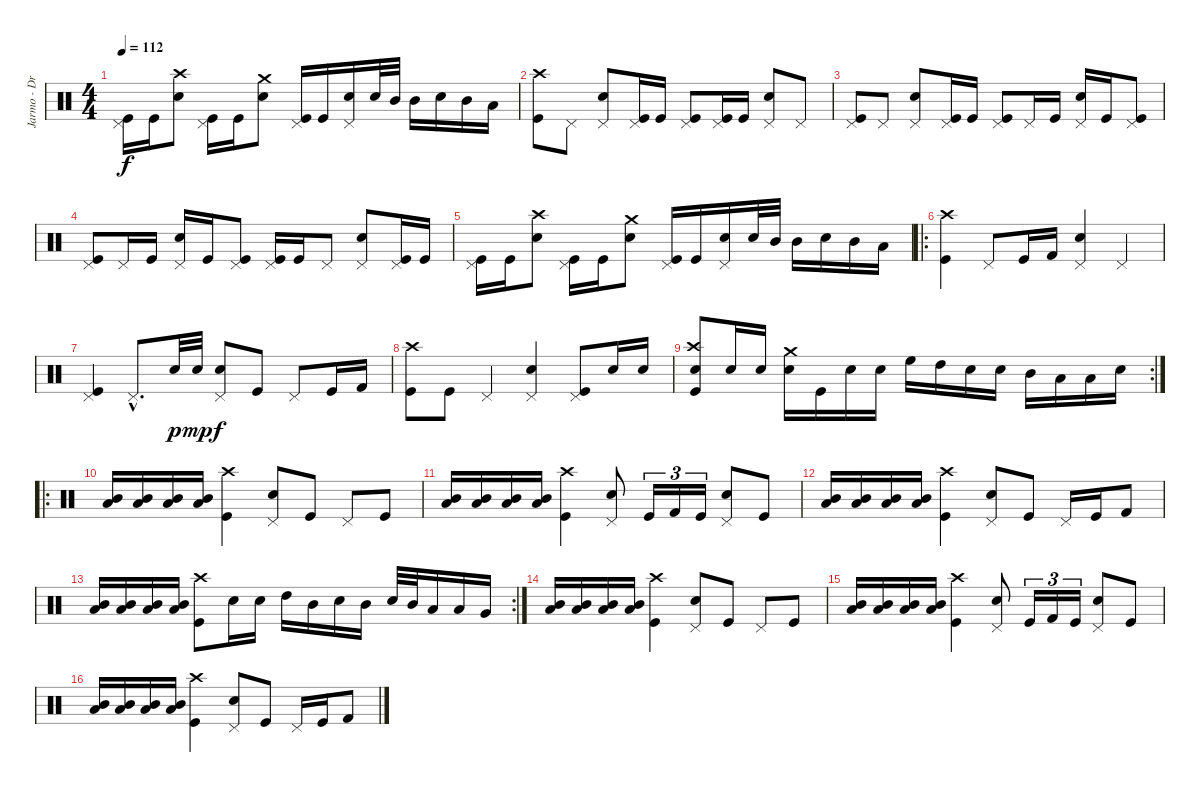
\track ("Jarmo - Drummies" "Jarmo - Dr") {instrument percussion}
\staff {score}
\articulation defaults
\ts (4 4)
\tempo 112
\clef neutral
\ks c
("Pedal Hi-Hat (hit)" "Kick (hit)").16{dy f} "Kick (hit)".16 ("Crash high (hit)" "Electric Snare (hit)").8 ("Pedal Hi-Hat (hit)" "Kick (hit)").16 "Kick (hit)".16 ("Crash medium (hit)" "Electric Snare (hit)").8 ("Pedal Hi-Hat (hit)" "Kick (hit)").16 "Kick (hit)".16 ("Pedal Hi-Hat (hit)" "Electric Snare (hit)").16 "Electric Snare (hit)".32 "Mid Tom (hit)".32 "Mid Tom (hit)".16 "Electric Snare (hit)".16 "Mid Tom (hit)".16 "Low Tom (hit)".16 |
("Crash high (hit)" "Kick (hit)").8 "Pedal Hi-Hat (hit)".8 ("Pedal Hi-Hat (hit)" "Electric Snare (hit)").8 ("Pedal Hi-Hat (hit)" "Kick (hit)").16 "Kick (hit)".16 ("Pedal Hi-Hat (hit)" "Kick (hit)").8 ("Pedal Hi-Hat (hit)" "Kick (hit)").16 "Kick (hit)".16 ("Pedal Hi-Hat (hit)" "Electric Snare (hit)").8 "Pedal Hi-Hat (hit)".8 |
("Pedal Hi-Hat (hit)" "Kick (hit)").8 "Pedal Hi-Hat (hit)".8 ("Pedal Hi-Hat (hit)" "Electric Snare (hit)").8 ("Pedal Hi-Hat (hit)" "Kick (hit)").16 "Kick (hit)".16 ("Pedal Hi-Hat (hit)" "Kick (hit)").8 "Pedal Hi-Hat (hit)".16 "Kick (hit)".16 ("Pedal Hi-Hat (hit)" "Electric Snare (hit)").16 "Kick (hit)".16 ("Pedal Hi-Hat (hit)" "Kick (hit)").8 |
("Pedal Hi-Hat (hit)" "Kick (hit)").8 "Pedal Hi-Hat (hit)".16 "Kick (hit)".16 ("Pedal Hi-Hat (hit)" "Electric Snare (hit)").16 "Kick (hit)".16 ("Pedal Hi-Hat (hit)" "Kick (hit)").8 ("Pedal Hi-Hat (hit)" "Kick (hit)").16 "Kick (hit)".16 "Pedal Hi-Hat (hit)".8 ("Pedal Hi-Hat (hit)" "Electric Snare (hit)").8 ("Pedal Hi-Hat (hit)" "Kick (hit)").16 "Kick (hit)".16 |
("Pedal Hi-Hat (hit)" "Kick (hit)").16 "Kick (hit)".16 ("Crash high (hit)" "Electric Snare (hit)").8 ("Pedal Hi-Hat (hit)" "Kick (hit)").16 "Kick (hit)".16 ("Crash medium (hit)" "Electric Snare (hit)").8 ("Pedal Hi-Hat (hit)" "Kick (hit)").16 "Kick (hit)".16 ("Pedal Hi-Hat (hit)" "Electric Snare (hit)").16 "Electric Snare (hit)".32 "Mid Tom (hit)".32 "Mid Tom (hit)".16 "Electric Snare (hit)".16 "Mid Tom (hit)".16 "Low Tom (hit)".16 |
\ro
("Kick (hit)" "Crash high (hit)").4 "Pedal Hi-Hat (hit)".8 "Kick (hit)".16 "Kick (hit) 2".16 ("Electric Snare (hit)" "Pedal Hi-Hat (hit)").4 "Pedal Hi-Hat (hit)".4 |
("Kick (hit)" "Pedal Hi-Hat (hit)").4 "Pedal Hi-Hat (hit)"{hac}.8{d} "Electric Snare (hit)".32{dy p} "Electric Snare (hit)".32{dy mp} ("Electric Snare (hit)" "Pedal Hi-Hat (hit)").8{dy f} "Kick (hit)".8 "Pedal Hi-Hat (hit)".8 "Kick (hit)".16 "Kick (hit) 2".16 |
("Kick (hit)" "Crash high (hit)").8 "Kick (hit)".8 "Pedal Hi-Hat (hit)".4 ("Electric Snare (hit)" "Pedal Hi-Hat (hit)").4 ("Kick (hit)" "Pedal Hi-Hat (hit)").8 "Electric Snare (hit)".16 "Electric Snare (hit)".16 |
\rc 2
("Kick (hit)" "Electric Snare (hit)" "Crash high (hit)").8 "Electric Snare (hit)".16 "Electric Snare (hit)".16 ("Electric Snare (hit)" "Crash medium (hit)").16 "Kick (hit)".16 "Electric Snare (hit)".16 "Electric Snare (hit)".16 "High Floor Tom (hit)".16 "High Tom (hit)".16 "Electric Snare (hit)".16 "Electric Snare (hit)".16 "Mid Tom (hit)".16 "Low Tom (hit)".16 "Low Tom (hit)".16 "Electric Snare (hit)".16 |
\ro
("Mid Tom (hit)" "Low Tom (hit)").16 ("Mid Tom (hit)" "Low Tom (hit)").16 ("Mid Tom (hit)" "Low Tom (hit)").16 ("Mid Tom (hit)" "Low Tom (hit)").16 ("Kick (hit)" "Crash high (hit)").4 ("Electric Snare (hit)" "Pedal Hi-Hat (hit)").8 "Kick (hit)".8 "Pedal Hi-Hat (hit)".8 "Kick (hit)".8 |
("Mid Tom (hit)" "Low Tom (hit)").16 ("Mid Tom (hit)" "Low Tom (hit)").16 ("Mid Tom (hit)" "Low Tom (hit)").16 ("Mid Tom (hit)" "Low Tom (hit)").16 ("Kick (hit)" "Crash high (hit)").4 ("Electric Snare (hit)" "Pedal Hi-Hat (hit)").8 "Kick (hit)".16{tu (3 2)} "Kick (hit) 2".16{tu (3 2)} "Kick (hit)".16{tu (3 2)} ("Electric Snare (hit)" "Pedal Hi-Hat (hit)").8 "Kick (hit)".8 |
("Mid Tom (hit)" "Low Tom (hit)").16 ("Mid Tom (hit)" "Low Tom (hit)").16 ("Mid Tom (hit)" "Low Tom (hit)").16 ("Mid Tom (hit)" "Low Tom (hit)").16 ("Kick (hit)" "Crash high (hit)").4 ("Electric Snare (hit)" "Pedal Hi-Hat (hit)").8 "Kick (hit)".8 "Pedal Hi-Hat (hit)".16 "Kick (hit)".16 "Kick (hit) 2".8 |
\rc 2
("Mid Tom (hit)" "Low Tom (hit)").16 ("Mid Tom (hit)" "Low Tom (hit)").16 ("Mid Tom (hit)" "Low Tom (hit)").16 ("Mid Tom (hit)" "Low Tom (hit)").16 ("Kick (hit)" "Crash high (hit)").8 "Electric Snare (hit)".16 "Electric Snare (hit)".16 "High Tom (hit)".16 "Mid Tom (hit)".16 "Electric Snare (hit)".16 "Mid Tom (hit)".16 "Electric Snare (hit)".32 "Mid Tom (hit)".32 "Low Tom (hit)".16 "Low Tom (hit)".16 "Very Low Tom (hit)".16 |
("Mid Tom (hit)" "Low Tom (hit)").16 ("Mid Tom (hit)" "Low Tom (hit)").16 ("Mid Tom (hit)" "Low Tom (hit)").16 ("Mid Tom (hit)" "Low Tom (hit)").16 ("Kick (hit)" "Crash high (hit)").4 ("Electric Snare (hit)" "Pedal Hi-Hat (hit)").8 "Kick (hit)".8 "Pedal Hi-Hat (hit)".8 "Kick (hit)".8 |
("Mid Tom (hit)" "Low Tom (hit)").16 ("Mid Tom (hit)" "Low Tom (hit)").16 ("Mid Tom (hit)" "Low Tom (hit)").16 ("Mid Tom (hit)" "Low Tom (hit)").16 ("Kick (hit)" "Crash high (hit)").4 ("Electric Snare (hit)" "Pedal Hi-Hat (hit)").8 "Kick (hit)".16{tu (3 2)} "Kick (hit) 2".16{tu (3 2)} "Kick (hit)".16{tu (3 2)} ("Electric Snare (hit)" "Pedal Hi-Hat (hit)").8 "Kick (hit)".8 |
("Mid Tom (hit)" "Low Tom (hit)").16 ("Mid Tom (hit)" "Low Tom (hit)").16 ("Mid Tom (hit)" "Low Tom (hit)").16 ("Mid Tom (hit)" "Low Tom (hit)").16 ("Kick (hit)" "Crash high (hit)").4 ("Electric Snare (hit)" "Pedal Hi-Hat (hit)").8 "Kick (hit)".8 "Pedal Hi-Hat (hit)".16 "Kick (hit)".16 "Kick (hit) 2".8
